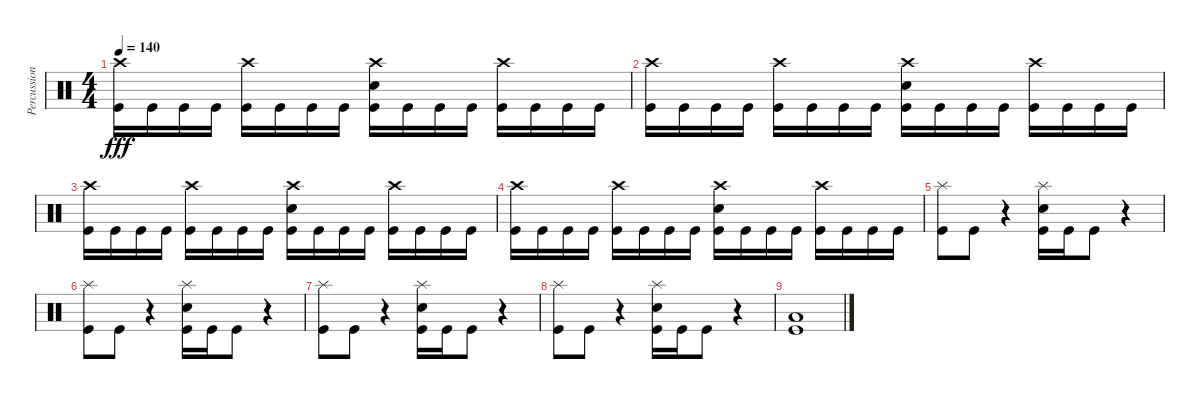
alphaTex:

\track ("Percussion" "Percussion") {instrument percussion}
\staff {score}
\articulation defaults
\ts (4 4)
\tempo 140
\clef neutral
\ks c
("Crash high (hit)" "Kick (hit)").16{dy fff} "Kick (hit)".16 "Kick (hit)".16 "Kick (hit)".16 ("Crash high (hit)" "Kick (hit)").16 "Kick (hit)".16 "Kick (hit)".16 "Kick (hit)".16 ("Crash high (hit)" "Electric Snare (hit)" "Kick (hit)").16 "Kick (hit)".16 "Kick (hit)".16 "Kick (hit)".16 ("Crash high (hit)" "Kick (hit)").16 "Kick (hit)".16 "Kick (hit)".16 "Kick (hit)".16 |
("Crash high (hit)" "Kick (hit)").16 "Kick (hit)".16 "Kick (hit)".16 "Kick (hit)".16 ("Crash high (hit)" "Kick (hit)").16 "Kick (hit)".16 "Kick (hit)".16 "Kick (hit)".16 ("Crash high (hit)" "Electric Snare (hit)" "Kick (hit)").16 "Kick (hit)".16 "Kick (hit)".16 "Kick (hit)".16 ("Crash high (hit)" "Kick (hit)").16 "Kick (hit)".16 "Kick (hit)".16 "Kick (hit)".16 |
("Crash high (hit)" "Kick (hit)").16 "Kick (hit)".16 "Kick (hit)".16 "Kick (hit)".16 ("Crash high (hit)" "Kick (hit)").16 "Kick (hit)".16 "Kick (hit)".16 "Kick (hit)".16 ("Crash high (hit)" "Electric Snare (hit)" "Kick (hit)").16 "Kick (hit)".16 "Kick (hit)".16 "Kick (hit)".16 ("Crash high (hit)" "Kick (hit)").16 "Kick (hit)".16 "Kick (hit)".16 "Kick (hit)".16 |
("Crash high (hit)" "Kick (hit)").16 "Kick (hit)".16 "Kick (hit)".16 "Kick (hit)".16 ("Crash high (hit)" "Kick (hit)").16 "Kick (hit)".16 "Kick (hit)".16 "Kick (hit)".16 ("Crash high (hit)" "Electric Snare (hit)" "Kick (hit)").16 "Kick (hit)".16 "Kick (hit)".16 "Kick (hit)".16 ("Crash high (hit)" "Kick (hit)").16 "Kick (hit)".16 "Kick (hit)".16 "Kick (hit)".16 |
("Splash (hit)" "Kick (hit)").8 "Kick (hit)".8 r.4 ("Splash (hit)" "Electric Snare (hit)" "Kick (hit)").16 "Kick (hit)".16 "Kick (hit)".8 r.4 |
("Splash (hit)" "Kick (hit)").8 "Kick (hit)".8 r.4 ("Splash (hit)" "Electric Snare (hit)" "Kick (hit)").16 "Kick (hit)".16 "Kick (hit)".8 r.4 |
("Splash (hit)" "Kick (hit)").8 "Kick (hit)".8 r.4 ("Splash (hit)" "Electric Snare (hit)" "Kick (hit)").16 "Kick (hit)".16 "Kick (hit)".8 r.4 |
("Splash (hit)" "Kick (hit)").8 "Kick (hit)".8 r.4 ("Splash (hit)" "Electric Snare (hit)" "Kick (hit)").16 "Kick (hit)".16 "Kick (hit)".8 r.4 |
("Low Floor Tom (hit)" "Kick (hit)").1
